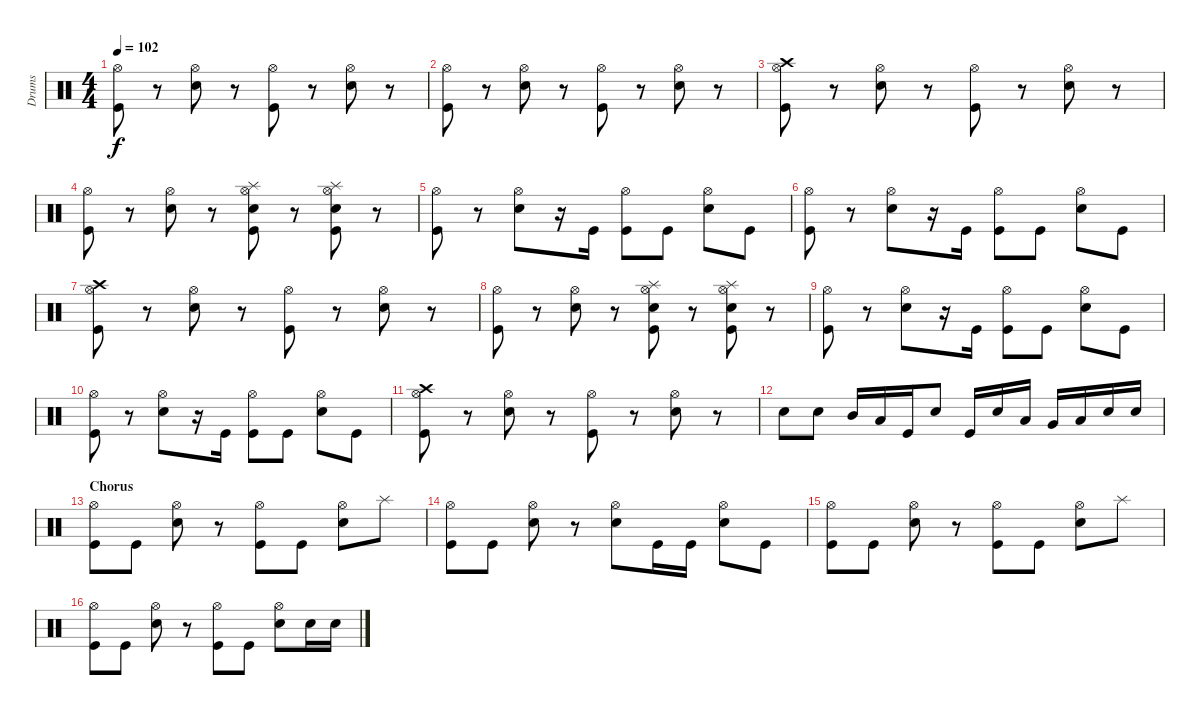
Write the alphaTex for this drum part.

\track ("Drums" "Drums") {instrument percussion}
\staff {score}
\articulation defaults
\ts (4 4)
\tempo 102
\clef neutral
\ks c
("Hi-Hat (open)" "Kick (hit)").8{dy f} r.8 ("Hi-Hat (open)" "Snare (hit) 2").8 r.8 ("Hi-Hat (open)" "Kick (hit)").8 r.8 ("Hi-Hat (open)" "Snare (hit) 2").8 r.8 |
("Hi-Hat (open)" "Kick (hit)").8 r.8 ("Hi-Hat (open)" "Snare (hit) 2").8 r.8 ("Hi-Hat (open)" "Kick (hit)").8 r.8 ("Hi-Hat (open)" "Snare (hit) 2").8 r.8 |
("Hi-Hat (open)" "Crash high (hit)" "Kick (hit)").8 r.8 ("Hi-Hat (open)" "Snare (hit) 2").8 r.8 ("Hi-Hat (open)" "Kick (hit)").8 r.8 ("Hi-Hat (open)" "Snare (hit) 2").8 r.8 |
("Hi-Hat (open)" "Kick (hit)").8 r.8 ("Hi-Hat (open)" "Snare (hit) 2").8 r.8 ("Hi-Hat (open)" "Splash (hit)" "Snare (hit) 2" "Kick (hit)").8 r.8 ("Hi-Hat (open)" "Splash (hit)" "Snare (hit) 2" "Kick (hit)").8 r.8 |
("Hi-Hat (open)" "Kick (hit)").8 r.8 ("Hi-Hat (open)" "Snare (hit) 2").8 r.16 "Kick (hit)".16 ("Hi-Hat (open)" "Kick (hit)").8 "Kick (hit)".8 ("Hi-Hat (open)" "Snare (hit) 2").8 "Kick (hit)".8 |
("Hi-Hat (open)" "Kick (hit)").8 r.8 ("Hi-Hat (open)" "Snare (hit) 2").8 r.16 "Kick (hit)".16 ("Hi-Hat (open)" "Kick (hit)").8 "Kick (hit)".8 ("Hi-Hat (open)" "Snare (hit) 2").8 "Kick (hit)".8 |
("Hi-Hat (open)" "Crash high (hit)" "Kick (hit)").8 r.8 ("Hi-Hat (open)" "Snare (hit) 2").8 r.8 ("Hi-Hat (open)" "Kick (hit)").8 r.8 ("Hi-Hat (open)" "Snare (hit) 2").8 r.8 |
("Hi-Hat (open)" "Kick (hit)").8 r.8 ("Hi-Hat (open)" "Snare (hit) 2").8 r.8 ("Hi-Hat (open)" "Splash (hit)" "Snare (hit) 2" "Kick (hit)").8 r.8 ("Hi-Hat (open)" "Splash (hit)" "Snare (hit) 2" "Kick (hit)").8 r.8 |
("Hi-Hat (open)" "Kick (hit)").8 r.8 ("Hi-Hat (open)" "Snare (hit) 2").8 r.16 "Kick (hit)".16 ("Hi-Hat (open)" "Kick (hit)").8 "Kick (hit)".8 ("Hi-Hat (open)" "Snare (hit) 2").8 "Kick (hit)".8 |
("Hi-Hat (open)" "Kick (hit)").8 r.8 ("Hi-Hat (open)" "Snare (hit) 2").8 r.16 "Kick (hit)".16 ("Hi-Hat (open)" "Kick (hit)").8 "Kick (hit)".8 ("Hi-Hat (open)" "Snare (hit) 2").8 "Kick (hit)".8 |
("Hi-Hat (open)" "Crash high (hit)" "Kick (hit)").8 r.8 ("Hi-Hat (open)" "Snare (hit) 2").8 r.8 ("Hi-Hat (open)" "Kick (hit)").8 r.8 ("Hi-Hat (open)" "Snare (hit) 2").8 r.8 |
"Snare (hit) 2".8 "Snare (hit) 2".8 "Mid Tom (hit)".16 "Low Tom (hit)".16 "Kick (hit)".16 "Snare (hit) 2".8 "Kick (hit)".16 "Snare (hit) 2".16 "Low Tom (hit)".16 "Very Low Tom (hit)".16 "Low Floor Tom (hit)".16 "Snare (hit) 2".16 "Snare (hit) 2".16 |
\section ("" "Chorus")
("Hi-Hat (open)" "Kick (hit)").8 "Kick (hit)".8 ("Hi-Hat (open)" "Snare (hit) 2").8 r.8 ("Hi-Hat (open)" "Kick (hit)").8 "Kick (hit)".8 ("Hi-Hat (open)" "Snare (hit) 2").8 "Splash (hit)".8 |
("Hi-Hat (open)" "Kick (hit)").8 "Kick (hit)".8 ("Hi-Hat (open)" "Snare (hit) 2").8 r.8 ("Hi-Hat (open)" "Snare (hit) 2").8 "Kick (hit)".16 "Kick (hit)".16 ("Hi-Hat (open)" "Snare (hit) 2").8 "Kick (hit)".8 |
("Hi-Hat (open)" "Kick (hit)").8 "Kick (hit)".8 ("Hi-Hat (open)" "Snare (hit) 2").8 r.8 ("Hi-Hat (open)" "Kick (hit)").8 "Kick (hit)".8 ("Hi-Hat (open)" "Snare (hit) 2").8 "Splash (hit)".8 |
("Hi-Hat (open)" "Kick (hit)").8 "Kick (hit)".8 ("Hi-Hat (open)" "Snare (hit) 2").8 r.8 ("Hi-Hat (open)" "Kick (hit)").8 "Kick (hit)".8 ("Hi-Hat (open)" "Snare (hit) 2").8 "Snare (hit) 2".16 "Snare (hit) 2".16
